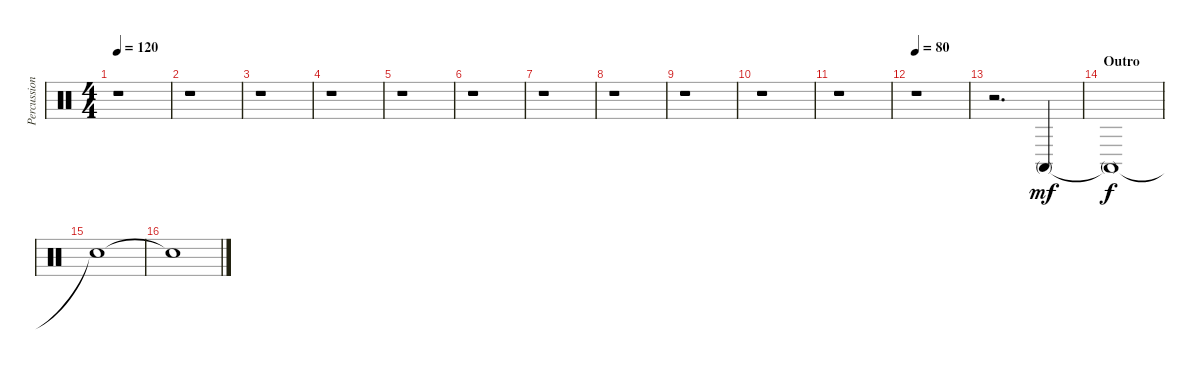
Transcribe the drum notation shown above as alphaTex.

\track ("Percussion" "Percussion") {instrument percussion}
\staff {score}
\articulation defaults
\ts (4 4)
\tempo 120
\clef neutral
\ks c
r.1{dy mf} |
r.1 |
r.1 |
r.1 |
r.1 |
r.1 |
r.1 |
r.1 |
r.1 |
r.1 |
r.1 |
\tempo 80
r.1 |
r.2{d} "Conga high (mute)".4 |
\section ("" "Outro")
"Conga high (mute)"{t}.1{dy f volume 0} |
"Snare (hit)"{t}.1 |
"Snare (hit)"{t}.1
